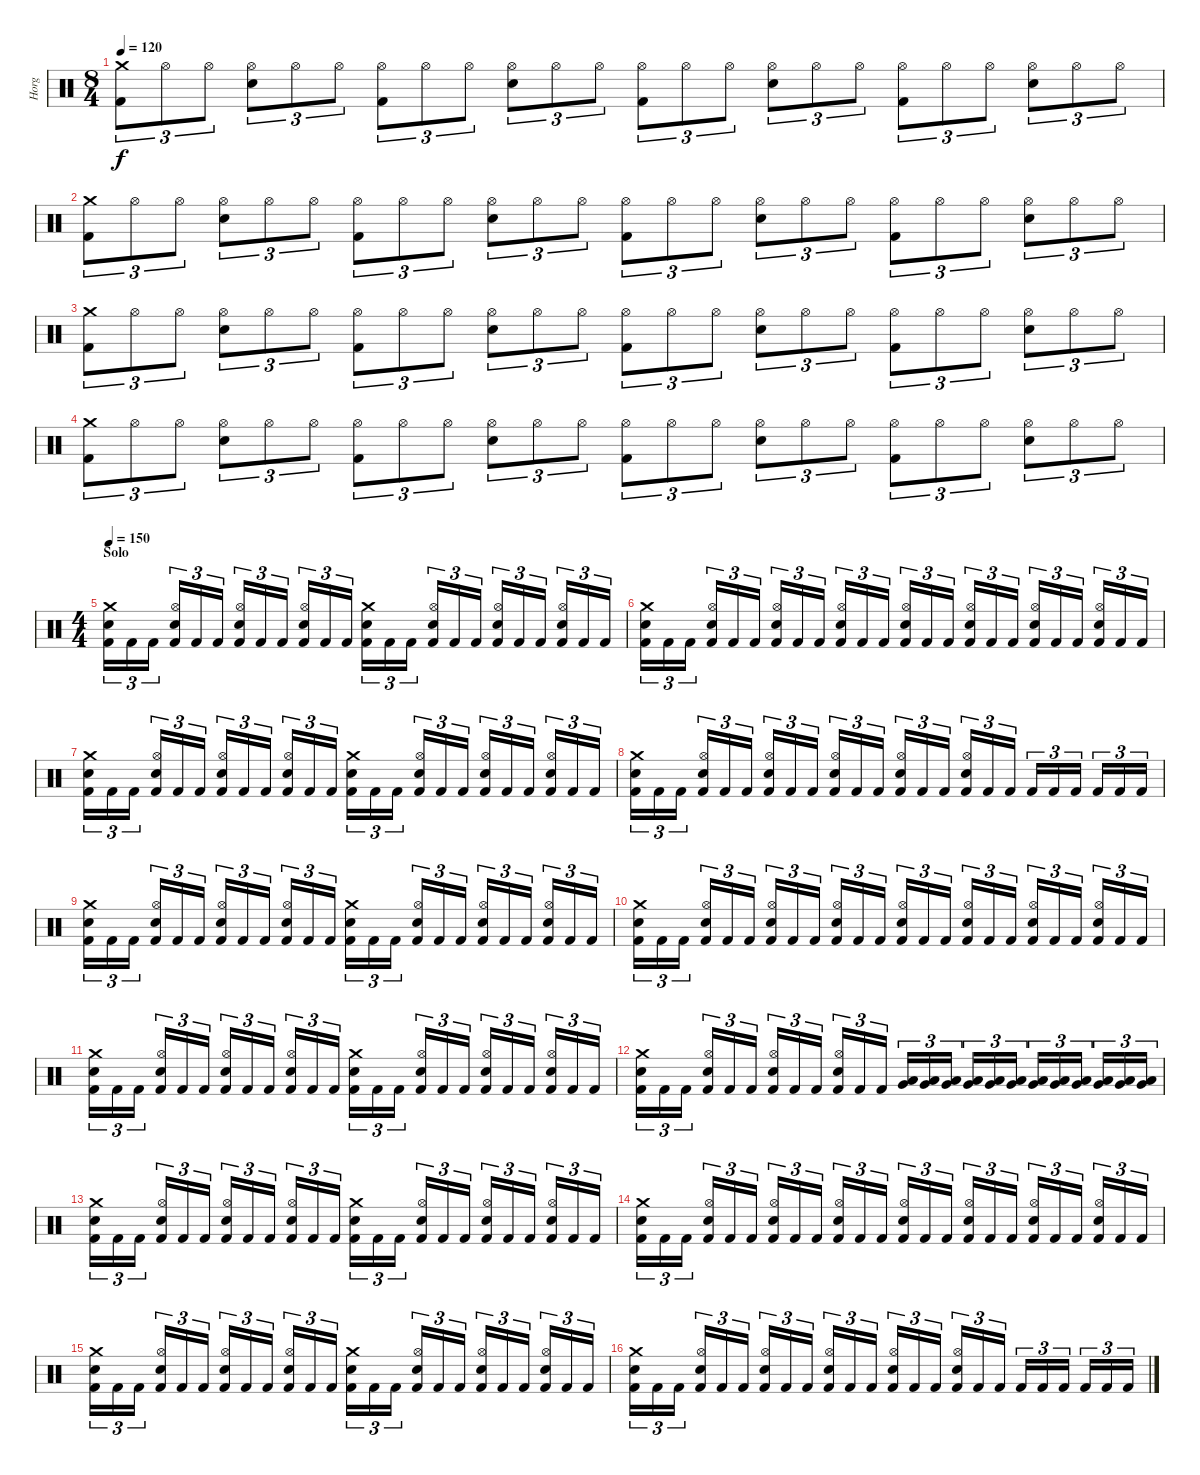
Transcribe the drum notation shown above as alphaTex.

\track ("Horg" "Horg") {instrument percussion}
\staff {score}
\articulation defaults
\ts (8 4)
\tempo 120
\clef neutral
\ks c
("Crash medium (hit)" "Kick (hit) 2").8{tu (3 2) dy f} "Hi-Hat (open)".8{tu (3 2)} "Hi-Hat (open)".8{tu (3 2)} ("Hi-Hat (open)" "Snare (hit) 2").8{tu (3 2)} "Hi-Hat (open)".8{tu (3 2)} "Hi-Hat (open)".8{tu (3 2)} ("Hi-Hat (open)" "Kick (hit) 2").8{tu (3 2)} "Hi-Hat (open)".8{tu (3 2)} "Hi-Hat (open)".8{tu (3 2)} ("Hi-Hat (open)" "Snare (hit) 2").8{tu (3 2)} "Hi-Hat (open)".8{tu (3 2)} "Hi-Hat (open)".8{tu (3 2)} ("Hi-Hat (open)" "Kick (hit) 2").8{tu (3 2)} "Hi-Hat (open)".8{tu (3 2)} "Hi-Hat (open)".8{tu (3 2)} ("Hi-Hat (open)" "Snare (hit) 2").8{tu (3 2)} "Hi-Hat (open)".8{tu (3 2)} "Hi-Hat (open)".8{tu (3 2)} ("Hi-Hat (open)" "Kick (hit) 2").8{tu (3 2)} "Hi-Hat (open)".8{tu (3 2)} "Hi-Hat (open)".8{tu (3 2)} ("Hi-Hat (open)" "Snare (hit) 2").8{tu (3 2)} "Hi-Hat (open)".8{tu (3 2)} "Hi-Hat (open)".8{tu (3 2)} |
("Crash medium (hit)" "Kick (hit) 2").8{tu (3 2)} "Hi-Hat (open)".8{tu (3 2)} "Hi-Hat (open)".8{tu (3 2)} ("Hi-Hat (open)" "Snare (hit) 2").8{tu (3 2)} "Hi-Hat (open)".8{tu (3 2)} "Hi-Hat (open)".8{tu (3 2)} ("Hi-Hat (open)" "Kick (hit) 2").8{tu (3 2)} "Hi-Hat (open)".8{tu (3 2)} "Hi-Hat (open)".8{tu (3 2)} ("Hi-Hat (open)" "Snare (hit) 2").8{tu (3 2)} "Hi-Hat (open)".8{tu (3 2)} "Hi-Hat (open)".8{tu (3 2)} ("Hi-Hat (open)" "Kick (hit) 2").8{tu (3 2)} "Hi-Hat (open)".8{tu (3 2)} "Hi-Hat (open)".8{tu (3 2)} ("Hi-Hat (open)" "Snare (hit) 2").8{tu (3 2)} "Hi-Hat (open)".8{tu (3 2)} "Hi-Hat (open)".8{tu (3 2)} ("Hi-Hat (open)" "Kick (hit) 2").8{tu (3 2)} "Hi-Hat (open)".8{tu (3 2)} "Hi-Hat (open)".8{tu (3 2)} ("Hi-Hat (open)" "Snare (hit) 2").8{tu (3 2)} "Hi-Hat (open)".8{tu (3 2)} "Hi-Hat (open)".8{tu (3 2)} |
("Crash medium (hit)" "Kick (hit) 2").8{tu (3 2)} "Hi-Hat (open)".8{tu (3 2)} "Hi-Hat (open)".8{tu (3 2)} ("Hi-Hat (open)" "Snare (hit) 2").8{tu (3 2)} "Hi-Hat (open)".8{tu (3 2)} "Hi-Hat (open)".8{tu (3 2)} ("Hi-Hat (open)" "Kick (hit) 2").8{tu (3 2)} "Hi-Hat (open)".8{tu (3 2)} "Hi-Hat (open)".8{tu (3 2)} ("Hi-Hat (open)" "Snare (hit) 2").8{tu (3 2)} "Hi-Hat (open)".8{tu (3 2)} "Hi-Hat (open)".8{tu (3 2)} ("Hi-Hat (open)" "Kick (hit) 2").8{tu (3 2)} "Hi-Hat (open)".8{tu (3 2)} "Hi-Hat (open)".8{tu (3 2)} ("Hi-Hat (open)" "Snare (hit) 2").8{tu (3 2)} "Hi-Hat (open)".8{tu (3 2)} "Hi-Hat (open)".8{tu (3 2)} ("Hi-Hat (open)" "Kick (hit) 2").8{tu (3 2)} "Hi-Hat (open)".8{tu (3 2)} "Hi-Hat (open)".8{tu (3 2)} ("Hi-Hat (open)" "Snare (hit) 2").8{tu (3 2)} "Hi-Hat (open)".8{tu (3 2)} "Hi-Hat (open)".8{tu (3 2)} |
("Crash medium (hit)" "Kick (hit) 2").8{tu (3 2)} "Hi-Hat (open)".8{tu (3 2)} "Hi-Hat (open)".8{tu (3 2)} ("Hi-Hat (open)" "Snare (hit) 2").8{tu (3 2)} "Hi-Hat (open)".8{tu (3 2)} "Hi-Hat (open)".8{tu (3 2)} ("Hi-Hat (open)" "Kick (hit) 2").8{tu (3 2)} "Hi-Hat (open)".8{tu (3 2)} "Hi-Hat (open)".8{tu (3 2)} ("Hi-Hat (open)" "Snare (hit) 2").8{tu (3 2)} "Hi-Hat (open)".8{tu (3 2)} "Hi-Hat (open)".8{tu (3 2)} ("Hi-Hat (open)" "Kick (hit) 2").8{tu (3 2)} "Hi-Hat (open)".8{tu (3 2)} "Hi-Hat (open)".8{tu (3 2)} ("Hi-Hat (open)" "Snare (hit) 2").8{tu (3 2)} "Hi-Hat (open)".8{tu (3 2)} "Hi-Hat (open)".8{tu (3 2)} ("Hi-Hat (open)" "Kick (hit) 2").8{tu (3 2)} "Hi-Hat (open)".8{tu (3 2)} "Hi-Hat (open)".8{tu (3 2)} ("Hi-Hat (open)" "Snare (hit) 2").8{tu (3 2)} "Hi-Hat (open)".8{tu (3 2)} "Hi-Hat (open)".8{tu (3 2)} |
\ts (4 4)
\section ("" "Solo ")
\tempo 150
("Crash medium (hit)" "Snare (hit) 2" "Kick (hit) 2").16{tu (3 2)} "Kick (hit) 2".16{tu (3 2)} "Kick (hit) 2".16{tu (3 2)} ("Hi-Hat (open)" "Snare (hit) 2" "Kick (hit) 2").16{tu (3 2)} "Kick (hit) 2".16{tu (3 2)} "Kick (hit) 2".16{tu (3 2)} ("Hi-Hat (open)" "Snare (hit) 2" "Kick (hit) 2").16{tu (3 2)} "Kick (hit) 2".16{tu (3 2)} "Kick (hit) 2".16{tu (3 2)} ("Hi-Hat (open)" "Snare (hit) 2" "Kick (hit) 2").16{tu (3 2)} "Kick (hit) 2".16{tu (3 2)} "Kick (hit) 2".16{tu (3 2)} ("Crash medium (hit)" "Snare (hit) 2" "Kick (hit) 2").16{tu (3 2)} "Kick (hit) 2".16{tu (3 2)} "Kick (hit) 2".16{tu (3 2)} ("Hi-Hat (open)" "Snare (hit) 2" "Kick (hit) 2").16{tu (3 2)} "Kick (hit) 2".16{tu (3 2)} "Kick (hit) 2".16{tu (3 2)} ("Hi-Hat (open)" "Snare (hit) 2" "Kick (hit) 2").16{tu (3 2)} "Kick (hit) 2".16{tu (3 2)} "Kick (hit) 2".16{tu (3 2)} ("Hi-Hat (open)" "Snare (hit) 2" "Kick (hit) 2").16{tu (3 2)} "Kick (hit) 2".16{tu (3 2)} "Kick (hit) 2".16{tu (3 2)} |
("Crash medium (hit)" "Snare (hit) 2" "Kick (hit) 2").16{tu (3 2)} "Kick (hit) 2".16{tu (3 2)} "Kick (hit) 2".16{tu (3 2)} ("Hi-Hat (open)" "Snare (hit) 2" "Kick (hit) 2").16{tu (3 2)} "Kick (hit) 2".16{tu (3 2)} "Kick (hit) 2".16{tu (3 2)} ("Hi-Hat (open)" "Snare (hit) 2" "Kick (hit) 2").16{tu (3 2)} "Kick (hit) 2".16{tu (3 2)} "Kick (hit) 2".16{tu (3 2)} ("Hi-Hat (open)" "Snare (hit) 2" "Kick (hit) 2").16{tu (3 2)} "Kick (hit) 2".16{tu (3 2)} "Kick (hit) 2".16{tu (3 2)} ("Hi-Hat (open)" "Snare (hit) 2" "Kick (hit) 2").16{tu (3 2)} "Kick (hit) 2".16{tu (3 2)} "Kick (hit) 2".16{tu (3 2)} ("Hi-Hat (open)" "Snare (hit) 2" "Kick (hit) 2").16{tu (3 2)} "Kick (hit) 2".16{tu (3 2)} "Kick (hit) 2".16{tu (3 2)} ("Hi-Hat (open)" "Snare (hit) 2" "Kick (hit) 2").16{tu (3 2)} "Kick (hit) 2".16{tu (3 2)} "Kick (hit) 2".16{tu (3 2)} ("Hi-Hat (open)" "Snare (hit) 2" "Kick (hit) 2").16{tu (3 2)} "Kick (hit) 2".16{tu (3 2)} "Kick (hit) 2".16{tu (3 2)} |
("Crash medium (hit)" "Snare (hit) 2" "Kick (hit) 2").16{tu (3 2)} "Kick (hit) 2".16{tu (3 2)} "Kick (hit) 2".16{tu (3 2)} ("Hi-Hat (open)" "Snare (hit) 2" "Kick (hit) 2").16{tu (3 2)} "Kick (hit) 2".16{tu (3 2)} "Kick (hit) 2".16{tu (3 2)} ("Hi-Hat (open)" "Snare (hit) 2" "Kick (hit) 2").16{tu (3 2)} "Kick (hit) 2".16{tu (3 2)} "Kick (hit) 2".16{tu (3 2)} ("Hi-Hat (open)" "Snare (hit) 2" "Kick (hit) 2").16{tu (3 2)} "Kick (hit) 2".16{tu (3 2)} "Kick (hit) 2".16{tu (3 2)} ("Crash medium (hit)" "Snare (hit) 2" "Kick (hit) 2").16{tu (3 2)} "Kick (hit) 2".16{tu (3 2)} "Kick (hit) 2".16{tu (3 2)} ("Hi-Hat (open)" "Snare (hit) 2" "Kick (hit) 2").16{tu (3 2)} "Kick (hit) 2".16{tu (3 2)} "Kick (hit) 2".16{tu (3 2)} ("Hi-Hat (open)" "Snare (hit) 2" "Kick (hit) 2").16{tu (3 2)} "Kick (hit) 2".16{tu (3 2)} "Kick (hit) 2".16{tu (3 2)} ("Hi-Hat (open)" "Snare (hit) 2" "Kick (hit) 2").16{tu (3 2)} "Kick (hit) 2".16{tu (3 2)} "Kick (hit) 2".16{tu (3 2)} |
("Crash medium (hit)" "Snare (hit) 2" "Kick (hit) 2").16{tu (3 2)} "Kick (hit) 2".16{tu (3 2)} "Kick (hit) 2".16{tu (3 2)} ("Hi-Hat (open)" "Snare (hit) 2" "Kick (hit) 2").16{tu (3 2)} "Kick (hit) 2".16{tu (3 2)} "Kick (hit) 2".16{tu (3 2)} ("Hi-Hat (open)" "Snare (hit) 2" "Kick (hit) 2").16{tu (3 2)} "Kick (hit) 2".16{tu (3 2)} "Kick (hit) 2".16{tu (3 2)} ("Hi-Hat (open)" "Snare (hit) 2" "Kick (hit) 2").16{tu (3 2)} "Kick (hit) 2".16{tu (3 2)} "Kick (hit) 2".16{tu (3 2)} ("Hi-Hat (open)" "Snare (hit) 2" "Kick (hit) 2").16{tu (3 2)} "Kick (hit) 2".16{tu (3 2)} "Kick (hit) 2".16{tu (3 2)} ("Hi-Hat (open)" "Snare (hit) 2" "Kick (hit) 2").16{tu (3 2)} "Kick (hit) 2".16{tu (3 2)} "Kick (hit) 2".16{tu (3 2)} "Kick (hit) 2".16{tu (3 2)} "Kick (hit) 2".16{tu (3 2)} "Kick (hit) 2".16{tu (3 2)} "Kick (hit) 2".16{tu (3 2)} "Kick (hit) 2".16{tu (3 2)} "Kick (hit) 2".16{tu (3 2)} |
("Crash medium (hit)" "Snare (hit) 2" "Kick (hit) 2").16{tu (3 2)} "Kick (hit) 2".16{tu (3 2)} "Kick (hit) 2".16{tu (3 2)} ("Hi-Hat (open)" "Snare (hit) 2" "Kick (hit) 2").16{tu (3 2)} "Kick (hit) 2".16{tu (3 2)} "Kick (hit) 2".16{tu (3 2)} ("Hi-Hat (open)" "Snare (hit) 2" "Kick (hit) 2").16{tu (3 2)} "Kick (hit) 2".16{tu (3 2)} "Kick (hit) 2".16{tu (3 2)} ("Hi-Hat (open)" "Snare (hit) 2" "Kick (hit) 2").16{tu (3 2)} "Kick (hit) 2".16{tu (3 2)} "Kick (hit) 2".16{tu (3 2)} ("Crash medium (hit)" "Snare (hit) 2" "Kick (hit) 2").16{tu (3 2)} "Kick (hit) 2".16{tu (3 2)} "Kick (hit) 2".16{tu (3 2)} ("Hi-Hat (open)" "Snare (hit) 2" "Kick (hit) 2").16{tu (3 2)} "Kick (hit) 2".16{tu (3 2)} "Kick (hit) 2".16{tu (3 2)} ("Hi-Hat (open)" "Snare (hit) 2" "Kick (hit) 2").16{tu (3 2)} "Kick (hit) 2".16{tu (3 2)} "Kick (hit) 2".16{tu (3 2)} ("Hi-Hat (open)" "Snare (hit) 2" "Kick (hit) 2").16{tu (3 2)} "Kick (hit) 2".16{tu (3 2)} "Kick (hit) 2".16{tu (3 2)} |
("Crash medium (hit)" "Snare (hit) 2" "Kick (hit) 2").16{tu (3 2)} "Kick (hit) 2".16{tu (3 2)} "Kick (hit) 2".16{tu (3 2)} ("Hi-Hat (open)" "Snare (hit) 2" "Kick (hit) 2").16{tu (3 2)} "Kick (hit) 2".16{tu (3 2)} "Kick (hit) 2".16{tu (3 2)} ("Hi-Hat (open)" "Snare (hit) 2" "Kick (hit) 2").16{tu (3 2)} "Kick (hit) 2".16{tu (3 2)} "Kick (hit) 2".16{tu (3 2)} ("Hi-Hat (open)" "Snare (hit) 2" "Kick (hit) 2").16{tu (3 2)} "Kick (hit) 2".16{tu (3 2)} "Kick (hit) 2".16{tu (3 2)} ("Hi-Hat (open)" "Snare (hit) 2" "Kick (hit) 2").16{tu (3 2)} "Kick (hit) 2".16{tu (3 2)} "Kick (hit) 2".16{tu (3 2)} ("Hi-Hat (open)" "Snare (hit) 2" "Kick (hit) 2").16{tu (3 2)} "Kick (hit) 2".16{tu (3 2)} "Kick (hit) 2".16{tu (3 2)} ("Hi-Hat (open)" "Snare (hit) 2" "Kick (hit) 2").16{tu (3 2)} "Kick (hit) 2".16{tu (3 2)} "Kick (hit) 2".16{tu (3 2)} ("Hi-Hat (open)" "Snare (hit) 2" "Kick (hit) 2").16{tu (3 2)} "Kick (hit) 2".16{tu (3 2)} "Kick (hit) 2".16{tu (3 2)} |
("Crash medium (hit)" "Snare (hit) 2" "Kick (hit) 2").16{tu (3 2)} "Kick (hit) 2".16{tu (3 2)} "Kick (hit) 2".16{tu (3 2)} ("Hi-Hat (open)" "Snare (hit) 2" "Kick (hit) 2").16{tu (3 2)} "Kick (hit) 2".16{tu (3 2)} "Kick (hit) 2".16{tu (3 2)} ("Hi-Hat (open)" "Snare (hit) 2" "Kick (hit) 2").16{tu (3 2)} "Kick (hit) 2".16{tu (3 2)} "Kick (hit) 2".16{tu (3 2)} ("Hi-Hat (open)" "Snare (hit) 2" "Kick (hit) 2").16{tu (3 2)} "Kick (hit) 2".16{tu (3 2)} "Kick (hit) 2".16{tu (3 2)} ("Crash medium (hit)" "Snare (hit) 2" "Kick (hit) 2").16{tu (3 2)} "Kick (hit) 2".16{tu (3 2)} "Kick (hit) 2".16{tu (3 2)} ("Hi-Hat (open)" "Snare (hit) 2" "Kick (hit) 2").16{tu (3 2)} "Kick (hit) 2".16{tu (3 2)} "Kick (hit) 2".16{tu (3 2)} ("Hi-Hat (open)" "Snare (hit) 2" "Kick (hit) 2").16{tu (3 2)} "Kick (hit) 2".16{tu (3 2)} "Kick (hit) 2".16{tu (3 2)} ("Hi-Hat (open)" "Snare (hit) 2" "Kick (hit) 2").16{tu (3 2)} "Kick (hit) 2".16{tu (3 2)} "Kick (hit) 2".16{tu (3 2)} |
("Crash medium (hit)" "Snare (hit) 2" "Kick (hit) 2").16{tu (3 2)} "Kick (hit) 2".16{tu (3 2)} "Kick (hit) 2".16{tu (3 2)} ("Hi-Hat (open)" "Snare (hit) 2" "Kick (hit) 2").16{tu (3 2)} "Kick (hit) 2".16{tu (3 2)} "Kick (hit) 2".16{tu (3 2)} ("Hi-Hat (open)" "Snare (hit) 2" "Kick (hit) 2").16{tu (3 2)} "Kick (hit) 2".16{tu (3 2)} "Kick (hit) 2".16{tu (3 2)} ("Hi-Hat (open)" "Snare (hit) 2" "Kick (hit) 2").16{tu (3 2)} "Kick (hit) 2".16{tu (3 2)} "Kick (hit) 2".16{tu (3 2)} ("Low Tom (hit)" "Very Low Tom (hit)").16{tu (3 2)} ("Low Tom (hit)" "Very Low Tom (hit)").16{tu (3 2)} ("Low Tom (hit)" "Very Low Tom (hit)").16{tu (3 2)} ("Low Tom (hit)" "Very Low Tom (hit)").16{tu (3 2)} ("Low Tom (hit)" "Very Low Tom (hit)").16{tu (3 2)} ("Low Tom (hit)" "Very Low Tom (hit)").16{tu (3 2)} ("Very Low Tom (hit)" "Low Floor Tom (hit)").16{tu (3 2)} ("Very Low Tom (hit)" "Low Floor Tom (hit)").16{tu (3 2)} ("Very Low Tom (hit)" "Low Floor Tom (hit)").16{tu (3 2)} ("Very Low Tom (hit)" "Low Floor Tom (hit)").16{tu (3 2)} ("Very Low Tom (hit)" "Low Floor Tom (hit)").16{tu (3 2)} ("Very Low Tom (hit)" "Low Floor Tom (hit)").16{tu (3 2)} |
("Crash medium (hit)" "Snare (hit) 2" "Kick (hit) 2").16{tu (3 2)} "Kick (hit) 2".16{tu (3 2)} "Kick (hit) 2".16{tu (3 2)} ("Hi-Hat (open)" "Snare (hit) 2" "Kick (hit) 2").16{tu (3 2)} "Kick (hit) 2".16{tu (3 2)} "Kick (hit) 2".16{tu (3 2)} ("Hi-Hat (open)" "Snare (hit) 2" "Kick (hit) 2").16{tu (3 2)} "Kick (hit) 2".16{tu (3 2)} "Kick (hit) 2".16{tu (3 2)} ("Hi-Hat (open)" "Snare (hit) 2" "Kick (hit) 2").16{tu (3 2)} "Kick (hit) 2".16{tu (3 2)} "Kick (hit) 2".16{tu (3 2)} ("Crash medium (hit)" "Snare (hit) 2" "Kick (hit) 2").16{tu (3 2)} "Kick (hit) 2".16{tu (3 2)} "Kick (hit) 2".16{tu (3 2)} ("Hi-Hat (open)" "Snare (hit) 2" "Kick (hit) 2").16{tu (3 2)} "Kick (hit) 2".16{tu (3 2)} "Kick (hit) 2".16{tu (3 2)} ("Hi-Hat (open)" "Snare (hit) 2" "Kick (hit) 2").16{tu (3 2)} "Kick (hit) 2".16{tu (3 2)} "Kick (hit) 2".16{tu (3 2)} ("Hi-Hat (open)" "Snare (hit) 2" "Kick (hit) 2").16{tu (3 2)} "Kick (hit) 2".16{tu (3 2)} "Kick (hit) 2".16{tu (3 2)} |
("Crash medium (hit)" "Snare (hit) 2" "Kick (hit) 2").16{tu (3 2)} "Kick (hit) 2".16{tu (3 2)} "Kick (hit) 2".16{tu (3 2)} ("Hi-Hat (open)" "Snare (hit) 2" "Kick (hit) 2").16{tu (3 2)} "Kick (hit) 2".16{tu (3 2)} "Kick (hit) 2".16{tu (3 2)} ("Hi-Hat (open)" "Snare (hit) 2" "Kick (hit) 2").16{tu (3 2)} "Kick (hit) 2".16{tu (3 2)} "Kick (hit) 2".16{tu (3 2)} ("Hi-Hat (open)" "Snare (hit) 2" "Kick (hit) 2").16{tu (3 2)} "Kick (hit) 2".16{tu (3 2)} "Kick (hit) 2".16{tu (3 2)} ("Hi-Hat (open)" "Snare (hit) 2" "Kick (hit) 2").16{tu (3 2)} "Kick (hit) 2".16{tu (3 2)} "Kick (hit) 2".16{tu (3 2)} ("Hi-Hat (open)" "Snare (hit) 2" "Kick (hit) 2").16{tu (3 2)} "Kick (hit) 2".16{tu (3 2)} "Kick (hit) 2".16{tu (3 2)} ("Hi-Hat (open)" "Snare (hit) 2" "Kick (hit) 2").16{tu (3 2)} "Kick (hit) 2".16{tu (3 2)} "Kick (hit) 2".16{tu (3 2)} ("Hi-Hat (open)" "Snare (hit) 2" "Kick (hit) 2").16{tu (3 2)} "Kick (hit) 2".16{tu (3 2)} "Kick (hit) 2".16{tu (3 2)} |
("Crash medium (hit)" "Snare (hit) 2" "Kick (hit) 2").16{tu (3 2)} "Kick (hit) 2".16{tu (3 2)} "Kick (hit) 2".16{tu (3 2)} ("Hi-Hat (open)" "Snare (hit) 2" "Kick (hit) 2").16{tu (3 2)} "Kick (hit) 2".16{tu (3 2)} "Kick (hit) 2".16{tu (3 2)} ("Hi-Hat (open)" "Snare (hit) 2" "Kick (hit) 2").16{tu (3 2)} "Kick (hit) 2".16{tu (3 2)} "Kick (hit) 2".16{tu (3 2)} ("Hi-Hat (open)" "Snare (hit) 2" "Kick (hit) 2").16{tu (3 2)} "Kick (hit) 2".16{tu (3 2)} "Kick (hit) 2".16{tu (3 2)} ("Crash medium (hit)" "Snare (hit) 2" "Kick (hit) 2").16{tu (3 2)} "Kick (hit) 2".16{tu (3 2)} "Kick (hit) 2".16{tu (3 2)} ("Hi-Hat (open)" "Snare (hit) 2" "Kick (hit) 2").16{tu (3 2)} "Kick (hit) 2".16{tu (3 2)} "Kick (hit) 2".16{tu (3 2)} ("Hi-Hat (open)" "Snare (hit) 2" "Kick (hit) 2").16{tu (3 2)} "Kick (hit) 2".16{tu (3 2)} "Kick (hit) 2".16{tu (3 2)} ("Hi-Hat (open)" "Snare (hit) 2" "Kick (hit) 2").16{tu (3 2)} "Kick (hit) 2".16{tu (3 2)} "Kick (hit) 2".16{tu (3 2)} |
("Crash medium (hit)" "Snare (hit) 2" "Kick (hit) 2").16{tu (3 2)} "Kick (hit) 2".16{tu (3 2)} "Kick (hit) 2".16{tu (3 2)} ("Hi-Hat (open)" "Snare (hit) 2" "Kick (hit) 2").16{tu (3 2)} "Kick (hit) 2".16{tu (3 2)} "Kick (hit) 2".16{tu (3 2)} ("Hi-Hat (open)" "Snare (hit) 2" "Kick (hit) 2").16{tu (3 2)} "Kick (hit) 2".16{tu (3 2)} "Kick (hit) 2".16{tu (3 2)} ("Hi-Hat (open)" "Snare (hit) 2" "Kick (hit) 2").16{tu (3 2)} "Kick (hit) 2".16{tu (3 2)} "Kick (hit) 2".16{tu (3 2)} ("Hi-Hat (open)" "Snare (hit) 2" "Kick (hit) 2").16{tu (3 2)} "Kick (hit) 2".16{tu (3 2)} "Kick (hit) 2".16{tu (3 2)} ("Hi-Hat (open)" "Snare (hit) 2" "Kick (hit) 2").16{tu (3 2)} "Kick (hit) 2".16{tu (3 2)} "Kick (hit) 2".16{tu (3 2)} "Kick (hit) 2".16{tu (3 2)} "Kick (hit) 2".16{tu (3 2)} "Kick (hit) 2".16{tu (3 2)} "Kick (hit) 2".16{tu (3 2)} "Kick (hit) 2".16{tu (3 2)} "Kick (hit) 2".16{tu (3 2)}
